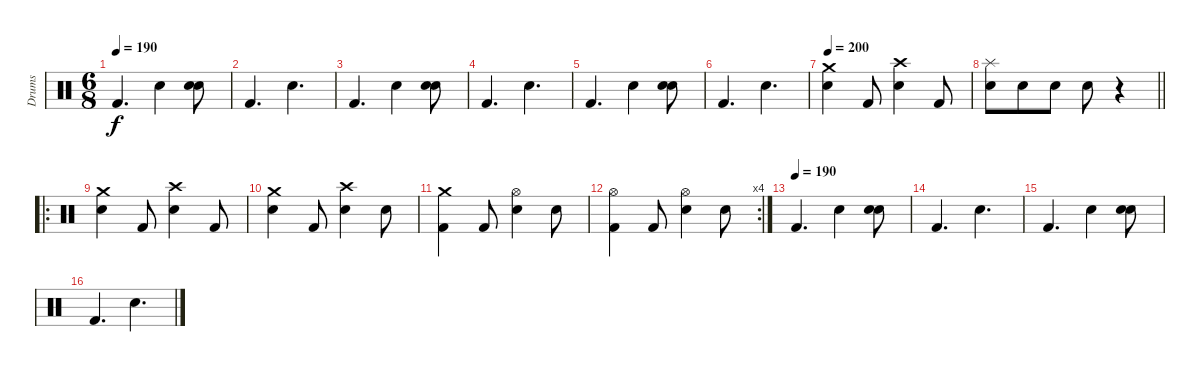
\track ("Drums" "Drums") {instrument percussion}
\staff {score}
\articulation defaults
\ts (6 8)
\tempo 190
\clef neutral
\ks c "Kick (hit) 2".4{d dy f} "Electric Snare (hit)".4
("Electric Snare (hit)" "Electric Snare (hit)").8{bd 480} |
"Kick (hit) 2".4{d} "Electric Snare (hit)".4{d} |
"Kick (hit) 2".4{d} "Electric Snare (hit)".4 ("Electric Snare (hit)" "Electric Snare (hit)").8{bd 480} |
"Kick (hit) 2".4{d} "Electric Snare (hit)".4{d} |
"Kick (hit) 2".4{d} "Electric Snare (hit)".4 ("Electric Snare (hit)" "Electric Snare (hit)").8{bd 480} |
"Kick (hit) 2".4{d} "Electric Snare (hit)".4{d} |
\tempo 200
("Crash medium (hit)" "Electric Snare (hit)").4 "Kick (hit) 2".8 ("Crash high (hit)" "Electric Snare (hit)").4 "Kick (hit) 2".8 |
\barLineRight lightlight
("Splash (hit)" "Electric Snare (hit)").8 "Electric Snare (hit)".8 "Electric Snare (hit)".8 "Electric Snare (hit)".8 r.4 |
\ro
("Crash medium (hit)" "Electric Snare (hit)").4 "Kick (hit) 2".8 ("Crash high (hit)" "Electric Snare (hit)").4 "Kick (hit) 2".8 |
("Crash medium (hit)" "Electric Snare (hit)").4 "Kick (hit) 2".8 ("Crash high (hit)" "Electric Snare (hit)").4 "Electric Snare (hit)".8 |
("Crash medium (hit)" "Kick (hit) 2").4 "Kick (hit) 2".8 ("Hi-Hat (open)" "Electric Snare (hit)").4 "Electric Snare (hit)".8 |
\rc 4
("Hi-Hat (open)" "Kick (hit) 2").4 "Kick (hit) 2".8 ("Hi-Hat (open)" "Electric Snare (hit)").4 "Electric Snare (hit)".8 |
\tempo (190)
"Kick (hit) 2".4{d} "Electric Snare (hit)".4 ("Electric Snare (hit)" "Electric Snare (hit)").8{bd 480} |
"Kick (hit) 2".4{d} "Electric Snare (hit)".4{d} |
"Kick (hit) 2".4{d} "Electric Snare (hit)".4 ("Electric Snare (hit)" "Electric Snare (hit)").8{bd 480} |
"Kick (hit) 2".4{d} "Electric Snare (hit)".4{d}
